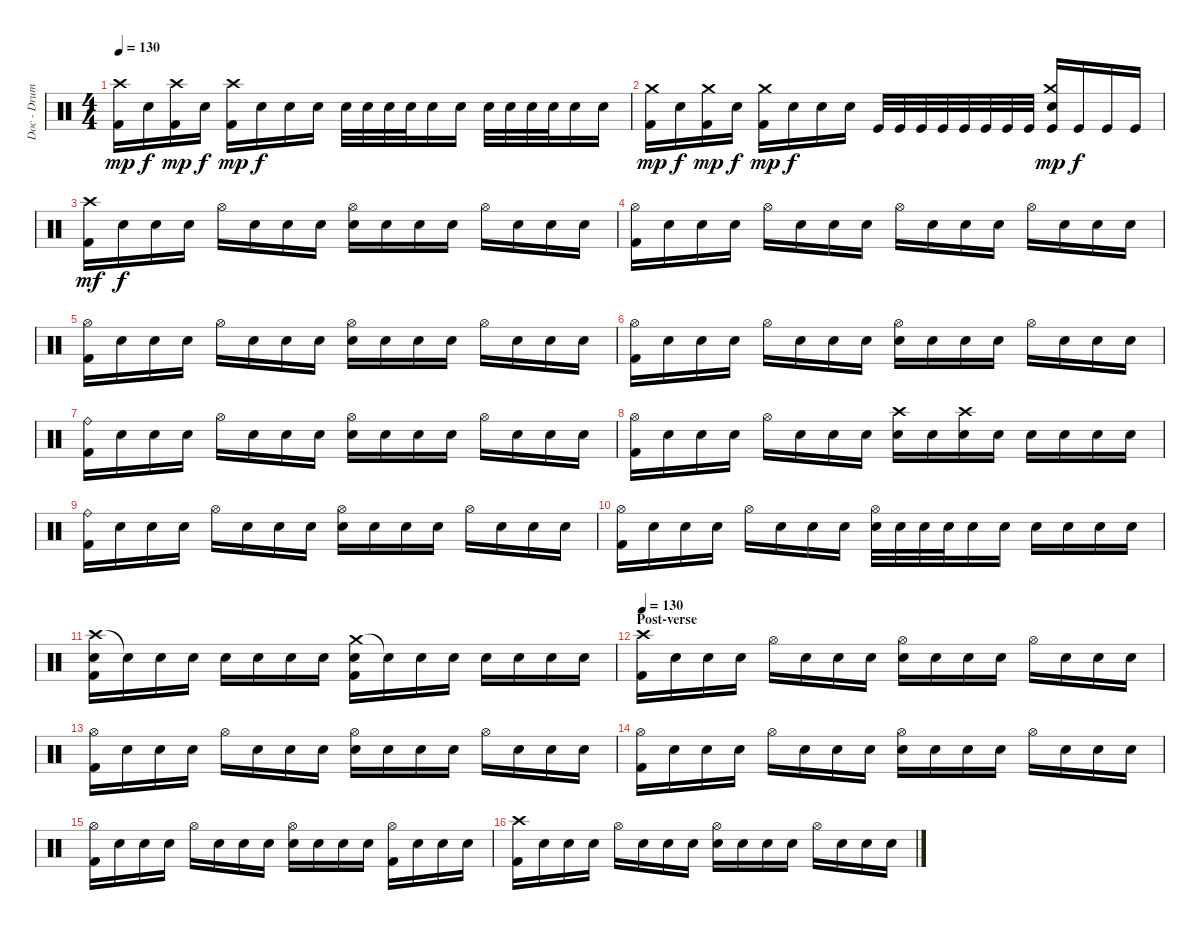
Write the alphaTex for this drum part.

\track ("Doc - Drums" "Doc - Drum") {instrument percussion}
\staff {score}
\articulation defaults
\ts (4 4)
\tempo 130
\clef neutral
\ks c
("Crash high (hit)" "Kick (hit) 2").16{dy mp} "Snare (hit)".16{dy f} ("Crash high (hit)" "Kick (hit) 2").16{dy mp} "Snare (hit)".16{dy f} ("Crash high (hit)" "Kick (hit) 2").16{dy mp} "Snare (hit)".16{dy f} "Snare (hit)".16 "Snare (hit)".16 "Electric Snare (hit)".32 "Electric Snare (hit)".32 "Electric Snare (hit)".32 "Electric Snare (hit)".32 "Electric Snare (hit)".16 "Electric Snare (hit)".16 "Electric Snare (hit)".32 "Electric Snare (hit)".32 "Electric Snare (hit)".32 "Electric Snare (hit)".32 "Electric Snare (hit)".16 "Snare (hit)".16 |
("Crash medium (hit)" "Kick (hit) 2").16{dy mp} "Snare (hit)".16{dy f} ("Crash medium (hit)" "Kick (hit) 2").16{dy mp} "Snare (hit)".16{dy f} ("Crash medium (hit)" "Kick (hit) 2").16{dy mp} "Snare (hit)".16{dy f} "Snare (hit)".16 "Snare (hit)".16 "Kick (hit)".32 "Kick (hit)".32 "Kick (hit)".32 "Kick (hit)".32 "Kick (hit)".32 "Kick (hit)".32 "Kick (hit)".32 "Kick (hit)".32 ("Crash medium (hit)" "Electric Snare (hit)" "Kick (hit)").16{dy mp} "Kick (hit)".16{dy f} "Kick (hit)".16 "Kick (hit)".16 |
("Crash high (hit)" "Kick (hit) 2").16{dy mf} "Snare (hit)".16{dy f} "Snare (hit)".16 "Snare (hit)".16 "Hi-Hat (open)".16 "Snare (hit)".16 "Snare (hit)".16 "Snare (hit)".16 ("Hi-Hat (open)" "Electric Snare (hit)").16 "Snare (hit)".16 "Snare (hit)".16 "Snare (hit)".16 "Hi-Hat (open)".16 "Snare (hit)".16 "Snare (hit)".16 "Snare (hit)".16 |
("Hi-Hat (open)" "Kick (hit) 2").16 "Snare (hit)".16 "Snare (hit)".16 "Snare (hit)".16 "Hi-Hat (open)".16 "Snare (hit)".16 "Snare (hit)".16 "Snare (hit)".16 "Hi-Hat (open)".16 "Snare (hit)".16 "Snare (hit)".16 "Snare (hit)".16 "Hi-Hat (open)".16 "Snare (hit)".16 "Snare (hit)".16 "Snare (hit)".16 |
("Hi-Hat (open)" "Kick (hit) 2").16 "Snare (hit)".16 "Snare (hit)".16 "Snare (hit)".16 "Hi-Hat (open)".16 "Snare (hit)".16 "Snare (hit)".16 "Snare (hit)".16 ("Hi-Hat (open)" "Electric Snare (hit)").16 "Snare (hit)".16 "Snare (hit)".16 "Snare (hit)".16 "Hi-Hat (open)".16 "Snare (hit)".16 "Snare (hit)".16 "Snare (hit)".16 |
("Hi-Hat (open)" "Kick (hit) 2").16 "Snare (hit)".16 "Snare (hit)".16 "Snare (hit)".16 "Hi-Hat (open)".16 "Snare (hit)".16 "Snare (hit)".16 "Snare (hit)".16 ("Hi-Hat (open)" "Electric Snare (hit)").16 "Snare (hit)".16 "Snare (hit)".16 "Snare (hit)".16 "Hi-Hat (open)".16 "Snare (hit)".16 "Snare (hit)".16 "Snare (hit)".16 |
("Ride (bell)" "Kick (hit) 2").16 "Snare (hit)".16 "Snare (hit)".16 "Snare (hit)".16 "Hi-Hat (open)".16 "Snare (hit)".16 "Snare (hit)".16 "Snare (hit)".16 ("Hi-Hat (open)" "Electric Snare (hit)").16 "Snare (hit)".16 "Snare (hit)".16 "Snare (hit)".16 "Hi-Hat (open)".16 "Snare (hit)".16 "Snare (hit)".16 "Snare (hit)".16 |
("Hi-Hat (open)" "Kick (hit) 2").16 "Snare (hit)".16 "Snare (hit)".16 "Snare (hit)".16 "Hi-Hat (open)".16 "Snare (hit)".16 "Snare (hit)".16 "Snare (hit)".16 ("Crash high (hit)" "Electric Snare (hit)").16 "Snare (hit)".16 ("Crash high (hit)" "Electric Snare (hit)").16 "Snare (hit)".16 "Snare (hit)".16 "Snare (hit)".16 "Snare (hit)".16 "Snare (hit)".16 |
("Ride (bell)" "Kick (hit) 2").16 "Snare (hit)".16 "Snare (hit)".16 "Snare (hit)".16 "Hi-Hat (open)".16 "Snare (hit)".16 "Snare (hit)".16 "Snare (hit)".16 ("Hi-Hat (open)" "Electric Snare (hit)").16 "Snare (hit)".16 "Snare (hit)".16 "Snare (hit)".16 "Hi-Hat (open)".16 "Snare (hit)".16 "Snare (hit)".16 "Snare (hit)".16 |
("Hi-Hat (open)" "Kick (hit) 2").16 "Snare (hit)".16 "Snare (hit)".16 "Snare (hit)".16 "Hi-Hat (open)".16 "Snare (hit)".16 "Snare (hit)".16 "Snare (hit)".16 ("Hi-Hat (open)" "Electric Snare (hit)").32 "Electric Snare (hit)".32 "Electric Snare (hit)".32 "Electric Snare (hit)".32 "Electric Snare (hit)".16 "Electric Snare (hit)".16 "Electric Snare (hit)".16 "Electric Snare (hit)".16 "Electric Snare (hit)".16 "Electric Snare (hit)".16 |
("Crash high (hit)" "Electric Snare (hit)" "Kick (hit) 2").16{volume 16 balance 8} "Snare (hit)"{t}.16 "Snare (hit)"{x}.16{volume 0} "Snare (hit)".16 "Snare (hit)".16 "Snare (hit)".16 "Snare (hit)".16 "Snare (hit)".16 ("Crash medium (hit)" "Electric Snare (hit)" "Kick (hit) 2").16{volume 16} "Snare (hit)"{t}.16 "Snare (hit)"{x}.16{volume 0} "Snare (hit)".16 "Snare (hit)".16 "Snare (hit)".16 "Snare (hit)".16 "Snare (hit)".16 |
\section ("" "Post-verse")
\tempo 130
("Crash high (hit)" "Kick (hit) 2").16{volume 16 balance 8} "Snare (hit)".16 "Snare (hit)".16 "Snare (hit)".16 "Hi-Hat (open)".16 "Snare (hit)".16 "Snare (hit)".16 "Snare (hit)".16 ("Hi-Hat (open)" "Electric Snare (hit)").16 "Snare (hit)".16 "Snare (hit)".16 "Snare (hit)".16 "Hi-Hat (open)".16 "Snare (hit)".16 "Snare (hit)".16 "Snare (hit)".16 |
("Hi-Hat (open)" "Kick (hit) 2").16 "Snare (hit)".16 "Snare (hit)".16 "Snare (hit)".16 "Hi-Hat (open)".16 "Snare (hit)".16 "Snare (hit)".16 "Snare (hit)".16 ("Hi-Hat (open)" "Electric Snare (hit)").16 "Snare (hit)".16 "Snare (hit)".16 "Snare (hit)".16 "Hi-Hat (open)".16 "Snare (hit)".16 "Snare (hit)".16 "Snare (hit)".16 |
("Hi-Hat (open)" "Kick (hit) 2").16 "Snare (hit)".16 "Snare (hit)".16 "Snare (hit)".16 "Hi-Hat (open)".16 "Snare (hit)".16 "Snare (hit)".16 "Snare (hit)".16 ("Hi-Hat (open)" "Electric Snare (hit)").16 "Snare (hit)".16 "Snare (hit)".16 "Snare (hit)".16 "Hi-Hat (open)".16 "Snare (hit)".16 "Snare (hit)".16 "Snare (hit)".16 |
("Hi-Hat (open)" "Kick (hit) 2").16 "Snare (hit)".16 "Snare (hit)".16 "Snare (hit)".16 "Hi-Hat (open)".16 "Snare (hit)".16 "Snare (hit)".16 "Snare (hit)".16 ("Hi-Hat (open)" "Electric Snare (hit)").16 "Snare (hit)".16 "Snare (hit)".16 "Snare (hit)".16 ("Hi-Hat (open)" "Kick (hit) 2").16 "Snare (hit)".16 "Snare (hit)".16 "Snare (hit)".16 |
("Crash high (hit)" "Kick (hit) 2").16 "Snare (hit)".16 "Snare (hit)".16 "Snare (hit)".16 "Hi-Hat (open)".16 "Snare (hit)".16 "Snare (hit)".16 "Snare (hit)".16 ("Hi-Hat (open)" "Electric Snare (hit)").16 "Snare (hit)".16 "Snare (hit)".16 "Snare (hit)".16 "Hi-Hat (open)".16 "Snare (hit)".16 "Snare (hit)".16 "Snare (hit)".16
